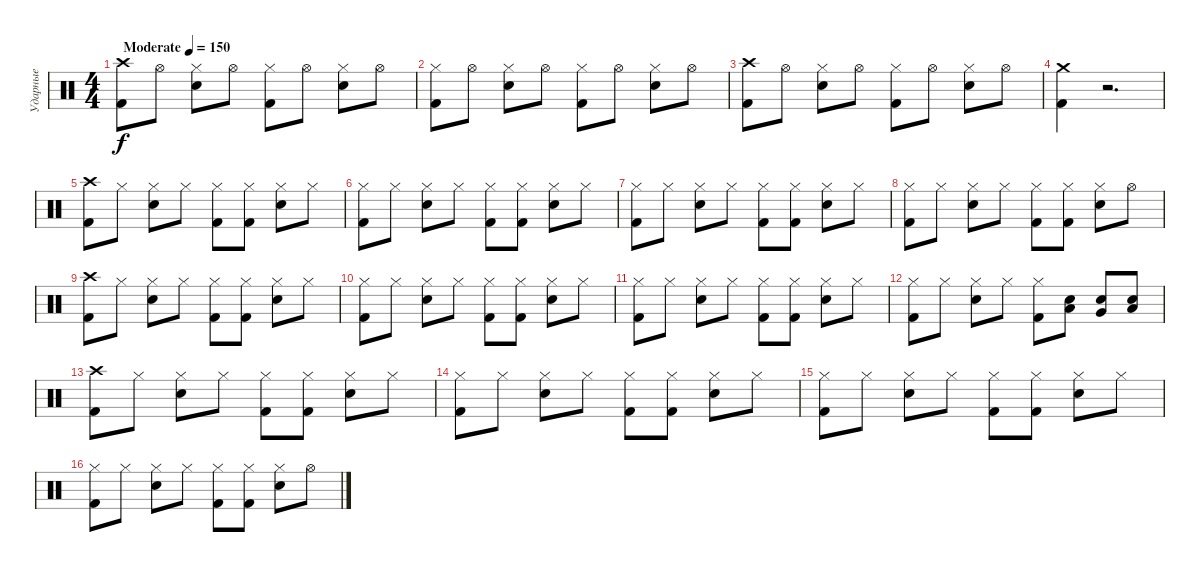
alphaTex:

\track ("Ударные" "Ударные") {instrument percussion}
\staff {score}
\articulation defaults
\ts (4 4)
\tempo (150 "Moderate")
\clef neutral
\ks c
("Crash high (hit)" "Kick (hit) 2").8{dy f} "Hi-Hat (open)".8 ("Hi-Hat (closed)" "Electric Snare (hit)").8 "Hi-Hat (open)".8 ("Hi-Hat (closed)" "Kick (hit) 2").8 "Hi-Hat (open)".8 ("Hi-Hat (closed)" "Electric Snare (hit)").8 "Hi-Hat (open)".8 |
("Hi-Hat (closed)" "Kick (hit) 2").8 "Hi-Hat (open)".8 ("Hi-Hat (closed)" "Electric Snare (hit)").8 "Hi-Hat (open)".8 ("Hi-Hat (closed)" "Kick (hit) 2").8 "Hi-Hat (open)".8 ("Hi-Hat (closed)" "Electric Snare (hit)").8 "Hi-Hat (open)".8 |
("Crash high (hit)" "Kick (hit) 2").8 "Hi-Hat (open)".8 ("Hi-Hat (closed)" "Electric Snare (hit)").8 "Hi-Hat (open)".8 ("Hi-Hat (closed)" "Kick (hit) 2").8 "Hi-Hat (open)".8 ("Hi-Hat (closed)" "Electric Snare (hit)").8 "Hi-Hat (open)".8 |
("Crash medium (hit)" "Kick (hit) 2").4 r.2{d} |
("Crash high (hit)" "Kick (hit) 2").8 "Hi-Hat (closed)".8 ("Hi-Hat (closed)" "Electric Snare (hit)").8 "Hi-Hat (closed)".8 ("Hi-Hat (closed)" "Kick (hit) 2").8 ("Hi-Hat (closed)" "Kick (hit) 2").8 ("Hi-Hat (closed)" "Electric Snare (hit)").8 "Hi-Hat (closed)".8 |
("Hi-Hat (closed)" "Kick (hit) 2").8 "Hi-Hat (closed)".8 ("Hi-Hat (closed)" "Electric Snare (hit)").8 "Hi-Hat (closed)".8 ("Hi-Hat (closed)" "Kick (hit) 2").8 ("Hi-Hat (closed)" "Kick (hit) 2").8 ("Hi-Hat (closed)" "Electric Snare (hit)").8 "Hi-Hat (closed)".8 |
("Hi-Hat (closed)" "Kick (hit) 2").8 "Hi-Hat (closed)".8 ("Hi-Hat (closed)" "Electric Snare (hit)").8 "Hi-Hat (closed)".8 ("Hi-Hat (closed)" "Kick (hit) 2").8 ("Hi-Hat (closed)" "Kick (hit) 2").8 ("Hi-Hat (closed)" "Electric Snare (hit)").8 "Hi-Hat (closed)".8 |
("Hi-Hat (closed)" "Kick (hit) 2").8 "Hi-Hat (closed)".8 ("Hi-Hat (closed)" "Electric Snare (hit)").8 "Hi-Hat (closed)".8 ("Hi-Hat (closed)" "Kick (hit) 2").8 ("Hi-Hat (closed)" "Kick (hit) 2").8 ("Hi-Hat (closed)" "Electric Snare (hit)").8 "Hi-Hat (open)".8 |
("Crash high (hit)" "Kick (hit) 2").8 "Hi-Hat (closed)".8 ("Hi-Hat (closed)" "Electric Snare (hit)").8 "Hi-Hat (closed)".8 ("Hi-Hat (closed)" "Kick (hit) 2").8 ("Hi-Hat (closed)" "Kick (hit) 2").8 ("Hi-Hat (closed)" "Electric Snare (hit)").8 "Hi-Hat (closed)".8 |
("Hi-Hat (closed)" "Kick (hit) 2").8 "Hi-Hat (closed)".8 ("Hi-Hat (closed)" "Electric Snare (hit)").8 "Hi-Hat (closed)".8 ("Hi-Hat (closed)" "Kick (hit) 2").8 ("Hi-Hat (closed)" "Kick (hit) 2").8 ("Hi-Hat (closed)" "Electric Snare (hit)").8 "Hi-Hat (closed)".8 |
("Hi-Hat (closed)" "Kick (hit) 2").8 "Hi-Hat (closed)".8 ("Hi-Hat (closed)" "Electric Snare (hit)").8 "Hi-Hat (closed)".8 ("Hi-Hat (closed)" "Kick (hit) 2").8 ("Hi-Hat (closed)" "Kick (hit) 2").8 ("Hi-Hat (closed)" "Electric Snare (hit)").8 "Hi-Hat (closed)".8 |
("Hi-Hat (closed)" "Kick (hit) 2").8 "Hi-Hat (closed)".8 ("Hi-Hat (closed)" "Electric Snare (hit)").8 "Hi-Hat (closed)".8 ("Hi-Hat (closed)" "Kick (hit) 2").8 ("Low Tom (hit)" "Electric Snare (hit)").8 ("Very Low Tom (hit)" "Electric Snare (hit)").8 ("Low Floor Tom (hit)" "Electric Snare (hit)").8 |
("Crash high (hit)" "Kick (hit) 2").8 "Hi-Hat (closed)".8 ("Hi-Hat (closed)" "Electric Snare (hit)").8 "Hi-Hat (closed)".8 ("Hi-Hat (closed)" "Kick (hit) 2").8 ("Hi-Hat (closed)" "Kick (hit) 2").8 ("Hi-Hat (closed)" "Electric Snare (hit)").8 "Hi-Hat (closed)".8 |
("Hi-Hat (closed)" "Kick (hit) 2").8 "Hi-Hat (closed)".8 ("Hi-Hat (closed)" "Electric Snare (hit)").8 "Hi-Hat (closed)".8 ("Hi-Hat (closed)" "Kick (hit) 2").8 ("Hi-Hat (closed)" "Kick (hit) 2").8 ("Hi-Hat (closed)" "Electric Snare (hit)").8 "Hi-Hat (closed)".8 |
("Hi-Hat (closed)" "Kick (hit) 2").8 "Hi-Hat (closed)".8 ("Hi-Hat (closed)" "Electric Snare (hit)").8 "Hi-Hat (closed)".8 ("Hi-Hat (closed)" "Kick (hit) 2").8 ("Hi-Hat (closed)" "Kick (hit) 2").8 ("Hi-Hat (closed)" "Electric Snare (hit)").8 "Hi-Hat (closed)".8 |
("Hi-Hat (closed)" "Kick (hit) 2").8 "Hi-Hat (closed)".8 ("Hi-Hat (closed)" "Electric Snare (hit)").8 "Hi-Hat (closed)".8 ("Hi-Hat (closed)" "Kick (hit) 2").8 ("Hi-Hat (closed)" "Kick (hit) 2").8 ("Hi-Hat (closed)" "Electric Snare (hit)").8 "Hi-Hat (open)".8
